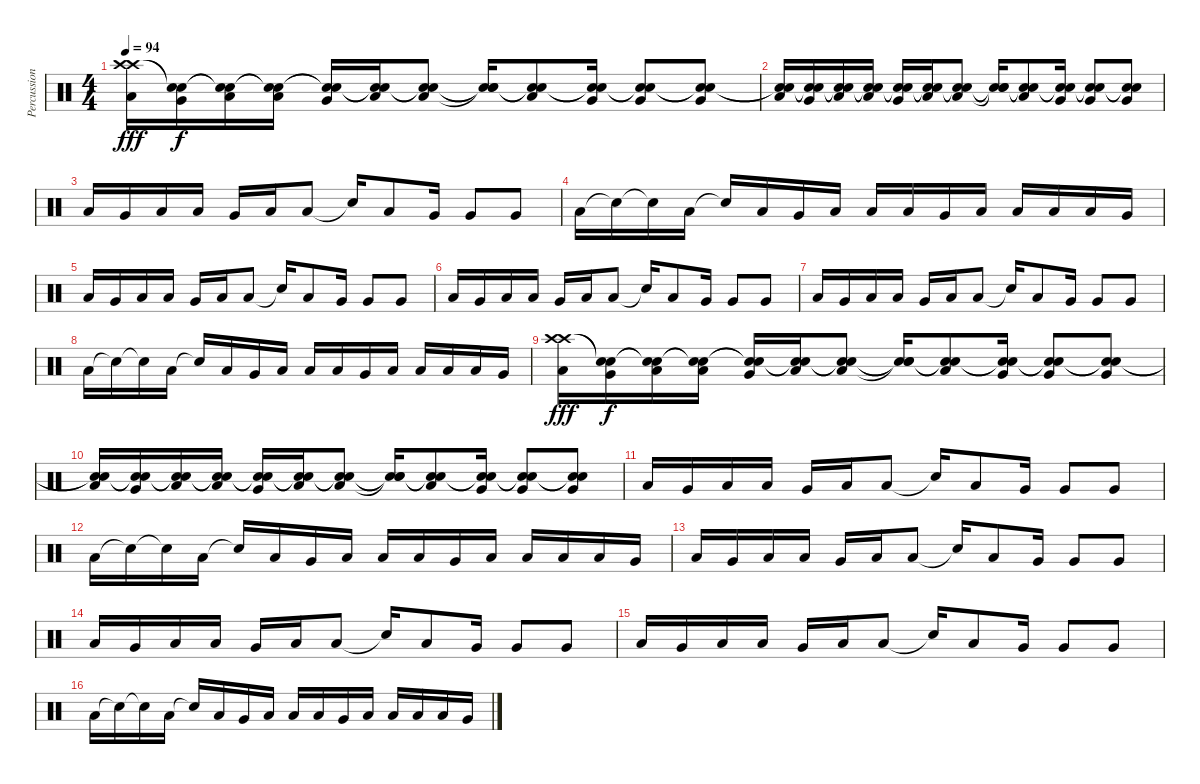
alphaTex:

\track ("Percussion" "Percussion") {instrument percussion}
\staff {score}
\articulation defaults
\ts (4 4)
\tempo 94
\clef neutral
\ks c
("Crash high (hit)" "Crash high (hit)" "Low Floor Tom (hit)").16{dy fff} ("Snare (hit)"{t} "Snare (hit)"{t} "Very Low Tom (hit)").16{dy f} ("Snare (hit)"{t} "Snare (hit)"{t} "Low Floor Tom (hit)").16 ("Snare (hit)"{t} "Snare (hit)"{t} "Low Floor Tom (hit)").16 ("Snare (hit)"{t} "Snare (hit)"{t} "Very Low Tom (hit)").16 ("Snare (hit)"{t} "Snare (hit)"{t} "Low Floor Tom (hit)").16 ("Snare (hit)"{t} "Snare (hit)"{t} "Low Floor Tom (hit)").8 ("Snare (hit)"{t} "Snare (hit)"{t} "Snare (hit)"{t}).16 ("Snare (hit)"{t} "Snare (hit)"{t} "Low Floor Tom (hit)").8 ("Snare (hit)"{t} "Snare (hit)"{t} "Very Low Tom (hit)").16 ("Snare (hit)"{t} "Snare (hit)"{t} "Very Low Tom (hit)").8 ("Snare (hit)"{t} "Snare (hit)"{t} "Very Low Tom (hit)").8 |
("Snare (hit)"{t} "Snare (hit)"{t} "Low Floor Tom (hit)").16 ("Snare (hit)"{t} "Snare (hit)"{t} "Very Low Tom (hit)").16 ("Snare (hit)"{t} "Snare (hit)"{t} "Low Floor Tom (hit)").16 ("Snare (hit)"{t} "Snare (hit)"{t} "Low Floor Tom (hit)").16 ("Snare (hit)"{t} "Snare (hit)"{t} "Very Low Tom (hit)").16 ("Snare (hit)"{t} "Snare (hit)"{t} "Low Floor Tom (hit)").16 ("Snare (hit)"{t} "Snare (hit)"{t} "Low Floor Tom (hit)").8 ("Snare (hit)"{t} "Snare (hit)"{t} "Snare (hit)"{t}).16 ("Snare (hit)"{t} "Snare (hit)"{t} "Low Floor Tom (hit)").8 ("Snare (hit)"{t} "Snare (hit)"{t} "Very Low Tom (hit)").16 ("Snare (hit)"{t} "Snare (hit)"{t} "Very Low Tom (hit)").8 ("Snare (hit)"{t} "Snare (hit)"{t} "Very Low Tom (hit)").8 |
"Low Floor Tom (hit)".16 "Very Low Tom (hit)".16 "Low Floor Tom (hit)".16 "Low Floor Tom (hit)".16 "Very Low Tom (hit)".16 "Low Floor Tom (hit)".16 "Low Floor Tom (hit)".8 "Snare (hit)"{t}.16 "Low Floor Tom (hit)".8 "Very Low Tom (hit)".16 "Very Low Tom (hit)".8 "Very Low Tom (hit)".8 |
"Low Floor Tom (hit)".16 "Snare (hit)"{t}.16 "Snare (hit)"{t}.16 "Low Floor Tom (hit)".16 "Snare (hit)"{t}.16 "Low Floor Tom (hit)".16 "Very Low Tom (hit)".16 "Low Floor Tom (hit)".16 "Low Floor Tom (hit)".16 "Low Tom (hit)".16 "Very Low Tom (hit)".16 "Low Floor Tom (hit)".16 "Low Tom (hit)".16 "Low Floor Tom (hit)".16 "Low Tom (hit)".16 "Very Low Tom (hit)".16 |
"Low Floor Tom (hit)".16 "Very Low Tom (hit)".16 "Low Floor Tom (hit)".16 "Low Floor Tom (hit)".16 "Very Low Tom (hit)".16 "Low Floor Tom (hit)".16 "Low Floor Tom (hit)".8 "Snare (hit)"{t}.16 "Low Floor Tom (hit)".8 "Very Low Tom (hit)".16 "Very Low Tom (hit)".8 "Very Low Tom (hit)".8 |
"Low Floor Tom (hit)".16 "Very Low Tom (hit)".16 "Low Floor Tom (hit)".16 "Low Floor Tom (hit)".16 "Very Low Tom (hit)".16 "Low Floor Tom (hit)".16 "Low Floor Tom (hit)".8 "Snare (hit)"{t}.16 "Low Floor Tom (hit)".8 "Very Low Tom (hit)".16 "Very Low Tom (hit)".8 "Very Low Tom (hit)".8 |
"Low Floor Tom (hit)".16 "Very Low Tom (hit)".16 "Low Floor Tom (hit)".16 "Low Floor Tom (hit)".16 "Very Low Tom (hit)".16 "Low Floor Tom (hit)".16 "Low Floor Tom (hit)".8 "Snare (hit)"{t}.16 "Low Floor Tom (hit)".8 "Very Low Tom (hit)".16 "Very Low Tom (hit)".8 "Very Low Tom (hit)".8 |
"Low Floor Tom (hit)".16 "Snare (hit)"{t}.16 "Snare (hit)"{t}.16 "Low Floor Tom (hit)".16 "Snare (hit)"{t}.16 "Low Floor Tom (hit)".16 "Very Low Tom (hit)".16 "Low Floor Tom (hit)".16 "Low Floor Tom (hit)".16 "Low Tom (hit)".16 "Very Low Tom (hit)".16 "Low Floor Tom (hit)".16 "Low Tom (hit)".16 "Low Floor Tom (hit)".16 "Low Tom (hit)".16 "Very Low Tom (hit)".16 |
("Crash high (hit)" "Crash high (hit)" "Low Floor Tom (hit)").16{dy fff} ("Snare (hit)"{t} "Snare (hit)"{t} "Very Low Tom (hit)").16{dy f} ("Snare (hit)"{t} "Snare (hit)"{t} "Low Floor Tom (hit)").16 ("Snare (hit)"{t} "Snare (hit)"{t} "Low Floor Tom (hit)").16 ("Snare (hit)"{t} "Snare (hit)"{t} "Very Low Tom (hit)").16 ("Snare (hit)"{t} "Snare (hit)"{t} "Low Floor Tom (hit)").16 ("Snare (hit)"{t} "Snare (hit)"{t} "Low Floor Tom (hit)").8 ("Snare (hit)"{t} "Snare (hit)"{t} "Snare (hit)"{t}).16 ("Snare (hit)"{t} "Snare (hit)"{t} "Low Floor Tom (hit)").8 ("Snare (hit)"{t} "Snare (hit)"{t} "Very Low Tom (hit)").16 ("Snare (hit)"{t} "Snare (hit)"{t} "Very Low Tom (hit)").8 ("Snare (hit)"{t} "Snare (hit)"{t} "Very Low Tom (hit)").8 |
("Snare (hit)"{t} "Snare (hit)"{t} "Low Floor Tom (hit)").16 ("Snare (hit)"{t} "Snare (hit)"{t} "Very Low Tom (hit)").16 ("Snare (hit)"{t} "Snare (hit)"{t} "Low Floor Tom (hit)").16 ("Snare (hit)"{t} "Snare (hit)"{t} "Low Floor Tom (hit)").16 ("Snare (hit)"{t} "Snare (hit)"{t} "Very Low Tom (hit)").16 ("Snare (hit)"{t} "Snare (hit)"{t} "Low Floor Tom (hit)").16 ("Snare (hit)"{t} "Snare (hit)"{t} "Low Floor Tom (hit)").8 ("Snare (hit)"{t} "Snare (hit)"{t} "Snare (hit)"{t}).16 ("Snare (hit)"{t} "Snare (hit)"{t} "Low Floor Tom (hit)").8 ("Snare (hit)"{t} "Snare (hit)"{t} "Very Low Tom (hit)").16 ("Snare (hit)"{t} "Snare (hit)"{t} "Very Low Tom (hit)").8 ("Snare (hit)"{t} "Snare (hit)"{t} "Very Low Tom (hit)").8 |
"Low Floor Tom (hit)".16 "Very Low Tom (hit)".16 "Low Floor Tom (hit)".16 "Low Floor Tom (hit)".16 "Very Low Tom (hit)".16 "Low Floor Tom (hit)".16 "Low Floor Tom (hit)".8 "Snare (hit)"{t}.16 "Low Floor Tom (hit)".8 "Very Low Tom (hit)".16 "Very Low Tom (hit)".8 "Very Low Tom (hit)".8 |
"Low Floor Tom (hit)".16 "Snare (hit)"{t}.16 "Snare (hit)"{t}.16 "Low Floor Tom (hit)".16 "Snare (hit)"{t}.16 "Low Floor Tom (hit)".16 "Very Low Tom (hit)".16 "Low Floor Tom (hit)".16 "Low Floor Tom (hit)".16 "Low Tom (hit)".16 "Very Low Tom (hit)".16 "Low Floor Tom (hit)".16 "Low Tom (hit)".16 "Low Floor Tom (hit)".16 "Low Tom (hit)".16 "Very Low Tom (hit)".16 |
"Low Floor Tom (hit)".16 "Very Low Tom (hit)".16 "Low Floor Tom (hit)".16 "Low Floor Tom (hit)".16 "Very Low Tom (hit)".16 "Low Floor Tom (hit)".16 "Low Floor Tom (hit)".8 "Snare (hit)"{t}.16 "Low Floor Tom (hit)".8 "Very Low Tom (hit)".16 "Very Low Tom (hit)".8 "Very Low Tom (hit)".8 |
"Low Floor Tom (hit)".16 "Very Low Tom (hit)".16 "Low Floor Tom (hit)".16 "Low Floor Tom (hit)".16 "Very Low Tom (hit)".16 "Low Floor Tom (hit)".16 "Low Floor Tom (hit)".8 "Snare (hit)"{t}.16 "Low Floor Tom (hit)".8 "Very Low Tom (hit)".16 "Very Low Tom (hit)".8 "Very Low Tom (hit)".8 |
"Low Floor Tom (hit)".16 "Very Low Tom (hit)".16 "Low Floor Tom (hit)".16 "Low Floor Tom (hit)".16 "Very Low Tom (hit)".16 "Low Floor Tom (hit)".16 "Low Floor Tom (hit)".8 "Snare (hit)"{t}.16 "Low Floor Tom (hit)".8 "Very Low Tom (hit)".16 "Very Low Tom (hit)".8 "Very Low Tom (hit)".8 |
"Low Floor Tom (hit)".16 "Snare (hit)"{t}.16 "Snare (hit)"{t}.16 "Low Floor Tom (hit)".16 "Snare (hit)"{t}.16 "Low Floor Tom (hit)".16 "Very Low Tom (hit)".16 "Low Floor Tom (hit)".16 "Low Floor Tom (hit)".16 "Low Tom (hit)".16 "Very Low Tom (hit)".16 "Low Floor Tom (hit)".16 "Low Tom (hit)".16 "Low Floor Tom (hit)".16 "Low Tom (hit)".16 "Very Low Tom (hit)".16
